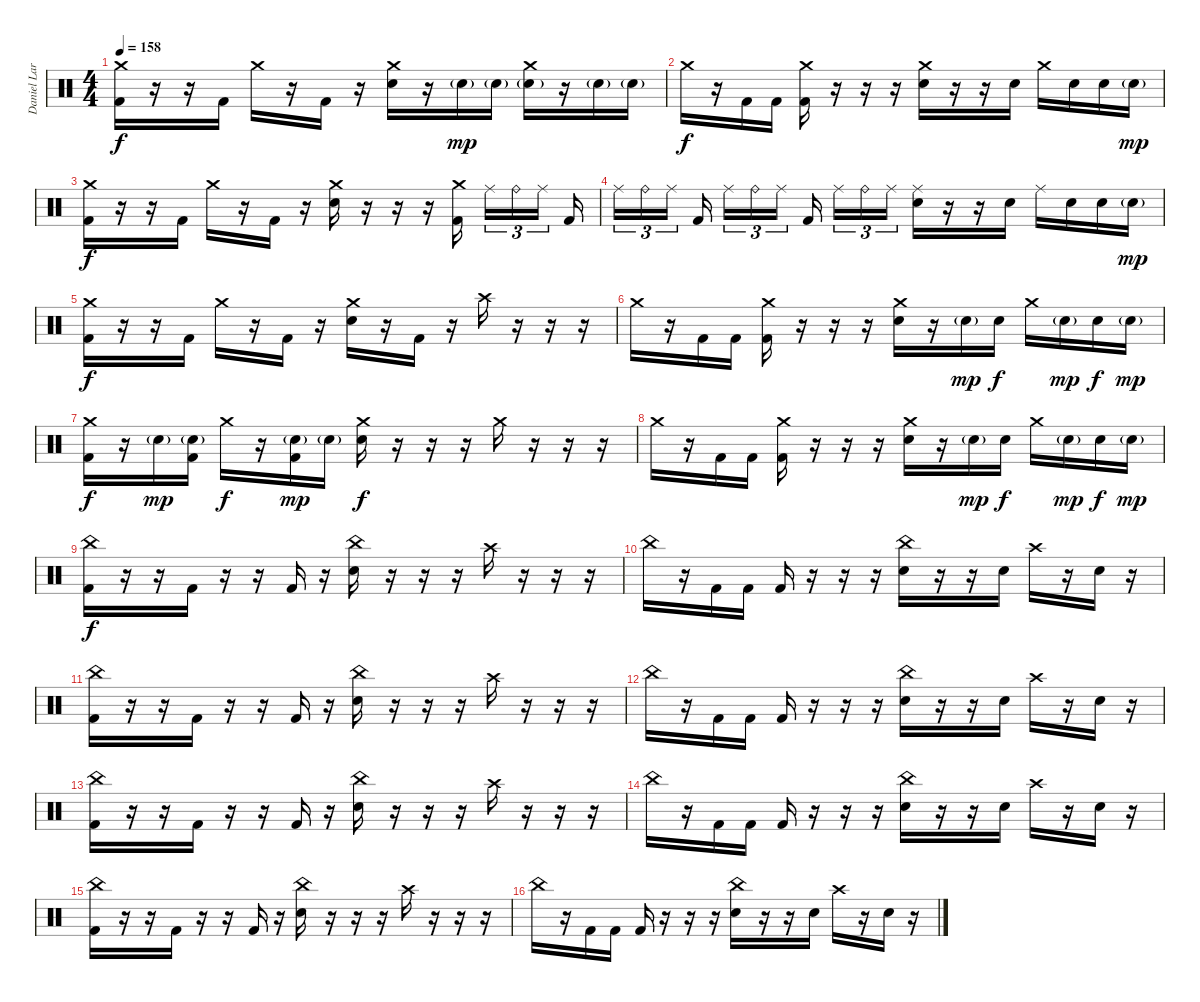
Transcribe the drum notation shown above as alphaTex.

\track ("Daniel Larsen" "Daniel Lar") {instrument percussion}
\staff {score}
\articulation defaults
\ts (4 4)
\tempo 158
\clef neutral
\ks c
("Crash medium (hit)" "Kick (hit) 2").16{dy f} r.16 r.16 "Kick (hit) 2".16 "Crash medium (hit)".16 r.16 "Kick (hit) 2".16 r.16 ("Crash medium (hit)" "Electric Snare (hit)").16 r.16 "Electric Snare (hit)"{g}.16{dy mp} "Electric Snare (hit)"{g}.16 ("Crash medium (hit)" "Electric Snare (hit)"{g}).16 r.16 "Electric Snare (hit)"{g}.16 "Electric Snare (hit)"{g}.16 |
"Crash medium (hit)".16{dy f} r.16 "Kick (hit) 2".16 "Kick (hit) 2".16 ("Crash medium (hit)" "Kick (hit) 2").16 r.16 r.16 r.16 ("Crash medium (hit)" "Electric Snare (hit)").16 r.16 r.16 "Electric Snare (hit)".16 "Crash medium (hit)".16 "Electric Snare (hit)".16 "Electric Snare (hit)".16 "Electric Snare (hit)"{g}.16{dy mp} |
("Crash medium (hit)" "Kick (hit) 2").16{dy f} r.16 r.16 "Kick (hit) 2".16 "Crash medium (hit)".16 r.16 "Kick (hit) 2".16 r.16 ("Crash medium (hit)" "Electric Snare (hit)").16 r.16 r.16 r.16 ("Crash medium (hit)" "Kick (hit) 2").16{beam splitsecondary} "Ride (middle)".16{tu (3 2)} "Ride (bell)".16{tu (3 2)} "Ride (middle)".16{tu (3 2) beam splitsecondary} "Kick (hit) 2".16 |
"Ride (middle)".16{tu (3 2)} "Ride (bell)".16{tu (3 2)} "Ride (middle)".16{tu (3 2) beam splitsecondary} "Kick (hit) 2".16{beam splitsecondary} "Ride (middle)".16{tu (3 2)} "Ride (bell)".16{tu (3 2)} "Ride (middle)".16{tu (3 2) beam splitsecondary} "Kick (hit) 2".16{beam splitsecondary} "Ride (middle)".16{tu (3 2)} "Ride (bell)".16{tu (3 2)} "Ride (middle)".16{tu (3 2)} ("Ride (middle)" "Electric Snare (hit)").16 r.16 r.16 "Electric Snare (hit)".16 "Ride (middle)".16 "Electric Snare (hit)".16 "Electric Snare (hit)".16 "Electric Snare (hit)"{g}.16{dy mp} |
("Crash medium (hit)" "Kick (hit) 2").16{dy f} r.16 r.16 "Kick (hit) 2".16 "Crash medium (hit)".16 r.16 "Kick (hit) 2".16 r.16 ("Crash medium (hit)" "Electric Snare (hit)").16 r.16 "Kick (hit) 2".16 r.16 "Crash high (hit)".16 r.16 r.16 r.16 |
"Crash medium (hit)".16 r.16 "Kick (hit) 2".16 "Kick (hit) 2".16 ("Crash medium (hit)" "Kick (hit) 2").16 r.16 r.16 r.16 ("Crash medium (hit)" "Electric Snare (hit)").16 r.16 "Electric Snare (hit)"{g}.16{dy mp} "Electric Snare (hit)".16{dy f} "Crash medium (hit)".16 "Electric Snare (hit)"{g}.16{dy mp} "Electric Snare (hit)".16{dy f} "Electric Snare (hit)"{g}.16{dy mp} |
("Crash medium (hit)" "Kick (hit) 2").16{dy f} r.16 "Electric Snare (hit)"{g}.16{dy mp} ("Electric Snare (hit)"{g} "Kick (hit) 2").16 "Crash medium (hit)".16{dy f} r.16 ("Electric Snare (hit)"{g} "Kick (hit) 2").16{dy mp} "Electric Snare (hit)"{g}.16 ("Crash medium (hit)" "Electric Snare (hit)").16{dy f} r.16 r.16 r.16 "Crash medium (hit)".16 r.16 r.16 r.16 |
"Crash medium (hit)".16 r.16 "Kick (hit) 2".16 "Kick (hit) 2".16 ("Crash medium (hit)" "Kick (hit) 2").16 r.16 r.16 r.16 ("Crash medium (hit)" "Electric Snare (hit)").16 r.16 "Electric Snare (hit)"{g}.16{dy mp} "Electric Snare (hit)".16{dy f} "Crash medium (hit)".16 "Electric Snare (hit)"{g}.16{dy mp} "Electric Snare (hit)".16{dy f} "Electric Snare (hit)"{g}.16{dy mp} |
("China (hit)" "Kick (hit) 2").16{dy f} r.16 r.16 "Kick (hit) 2".16 r.16 r.16 "Kick (hit) 2".16 r.16 ("China (hit)" "Electric Snare (hit)").16 r.16 r.16 r.16 "Crash high (hit)".16 r.16 r.16 r.16 |
"China (hit)".16 r.16 "Kick (hit) 2".16 "Kick (hit) 2".16 "Kick (hit) 2".16 r.16 r.16 r.16 ("China (hit)" "Electric Snare (hit)").16 r.16 r.16 "Electric Snare (hit)".16 "Crash high (hit)".16 r.16 "Electric Snare (hit)".16 r.16 |
("China (hit)" "Kick (hit) 2").16 r.16 r.16 "Kick (hit) 2".16 r.16 r.16 "Kick (hit) 2".16 r.16 ("China (hit)" "Electric Snare (hit)").16 r.16 r.16 r.16 "Crash high (hit)".16 r.16 r.16 r.16 |
"China (hit)".16 r.16 "Kick (hit) 2".16 "Kick (hit) 2".16 "Kick (hit) 2".16 r.16 r.16 r.16 ("China (hit)" "Electric Snare (hit)").16 r.16 r.16 "Electric Snare (hit)".16 "Crash high (hit)".16 r.16 "Electric Snare (hit)".16 r.16 |
("China (hit)" "Kick (hit) 2").16 r.16 r.16 "Kick (hit) 2".16 r.16 r.16 "Kick (hit) 2".16 r.16 ("China (hit)" "Electric Snare (hit)").16 r.16 r.16 r.16 "Crash high (hit)".16 r.16 r.16 r.16 |
"China (hit)".16 r.16 "Kick (hit) 2".16 "Kick (hit) 2".16 "Kick (hit) 2".16 r.16 r.16 r.16 ("China (hit)" "Electric Snare (hit)").16 r.16 r.16 "Electric Snare (hit)".16 "Crash high (hit)".16 r.16 "Electric Snare (hit)".16 r.16 |
("China (hit)" "Kick (hit) 2").16 r.16 r.16 "Kick (hit) 2".16 r.16 r.16 "Kick (hit) 2".16 r.16 ("China (hit)" "Electric Snare (hit)").16 r.16 r.16 r.16 "Crash high (hit)".16 r.16 r.16 r.16 |
"China (hit)".16 r.16 "Kick (hit) 2".16 "Kick (hit) 2".16 "Kick (hit) 2".16 r.16 r.16 r.16 ("China (hit)" "Electric Snare (hit)").16 r.16 r.16 "Electric Snare (hit)".16 "Crash high (hit)".16 r.16 "Electric Snare (hit)".16 r.16
